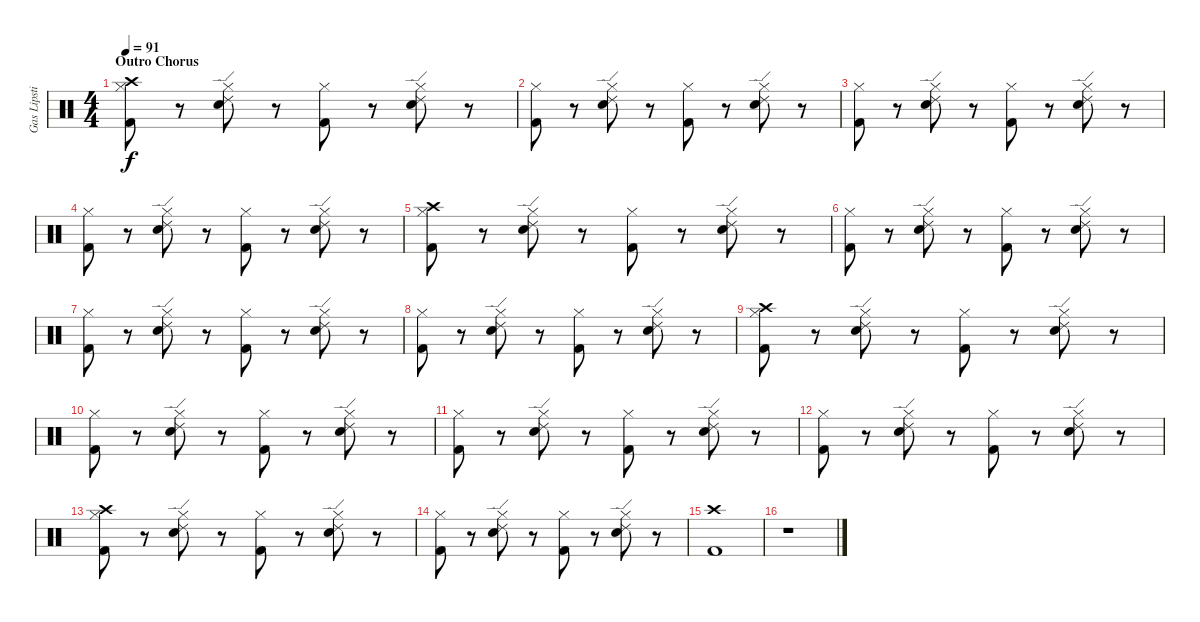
\track ("Gas Lipstick (Drums)" "Gas Lipsti") {instrument percussion}
\staff {score}
\articulation defaults
\ts (4 4)
\section ("" "Outro Chorus")
\tempo 91
\clef neutral
\ks c
("Crash high (hit)" "Hi-Hat (closed)" "Kick (hit) 2").8{dy f} r.8 ("Ride (edge) 2" "Hi-Hat (closed)" "Snare (hit) 2").8 r.8 ("Hi-Hat (closed)" "Kick (hit) 2").8 r.8 ("Ride (edge) 2" "Hi-Hat (closed)" "Snare (hit) 2").8 r.8 |
("Hi-Hat (closed)" "Kick (hit) 2").8 r.8 ("Ride (edge) 2" "Hi-Hat (closed)" "Snare (hit) 2").8 r.8 ("Hi-Hat (closed)" "Kick (hit) 2").8 r.8 ("Ride (edge) 2" "Hi-Hat (closed)" "Snare (hit) 2").8 r.8 |
("Hi-Hat (closed)" "Kick (hit) 2").8 r.8 ("Ride (edge) 2" "Hi-Hat (closed)" "Snare (hit) 2").8 r.8 ("Hi-Hat (closed)" "Kick (hit) 2").8 r.8 ("Ride (edge) 2" "Hi-Hat (closed)" "Snare (hit) 2").8 r.8 |
("Hi-Hat (closed)" "Kick (hit) 2").8 r.8 ("Ride (edge) 2" "Hi-Hat (closed)" "Snare (hit) 2").8 r.8 ("Hi-Hat (closed)" "Kick (hit) 2").8 r.8 ("Ride (edge) 2" "Hi-Hat (closed)" "Snare (hit) 2").8 r.8 |
("Crash high (hit)" "Hi-Hat (closed)" "Kick (hit) 2").8 r.8 ("Ride (edge) 2" "Hi-Hat (closed)" "Snare (hit) 2").8 r.8 ("Hi-Hat (closed)" "Kick (hit) 2").8 r.8 ("Ride (edge) 2" "Hi-Hat (closed)" "Snare (hit) 2").8 r.8 |
("Hi-Hat (closed)" "Kick (hit) 2").8 r.8 ("Ride (edge) 2" "Hi-Hat (closed)" "Snare (hit) 2").8 r.8 ("Hi-Hat (closed)" "Kick (hit) 2").8 r.8 ("Ride (edge) 2" "Hi-Hat (closed)" "Snare (hit) 2").8 r.8 |
("Hi-Hat (closed)" "Kick (hit) 2").8 r.8 ("Ride (edge) 2" "Hi-Hat (closed)" "Snare (hit) 2").8 r.8 ("Hi-Hat (closed)" "Kick (hit) 2").8 r.8 ("Ride (edge) 2" "Hi-Hat (closed)" "Snare (hit) 2").8 r.8 |
("Hi-Hat (closed)" "Kick (hit) 2").8 r.8 ("Ride (edge) 2" "Hi-Hat (closed)" "Snare (hit) 2").8 r.8 ("Hi-Hat (closed)" "Kick (hit) 2").8 r.8 ("Ride (edge) 2" "Hi-Hat (closed)" "Snare (hit) 2").8 r.8 |
("Crash high (hit)" "Hi-Hat (closed)" "Kick (hit) 2").8 r.8 ("Ride (edge) 2" "Hi-Hat (closed)" "Snare (hit) 2").8 r.8 ("Hi-Hat (closed)" "Kick (hit) 2").8 r.8 ("Ride (edge) 2" "Hi-Hat (closed)" "Snare (hit) 2").8 r.8 |
("Hi-Hat (closed)" "Kick (hit) 2").8 r.8 ("Ride (edge) 2" "Hi-Hat (closed)" "Snare (hit) 2").8 r.8 ("Hi-Hat (closed)" "Kick (hit) 2").8 r.8 ("Ride (edge) 2" "Hi-Hat (closed)" "Snare (hit) 2").8 r.8 |
("Hi-Hat (closed)" "Kick (hit) 2").8 r.8 ("Ride (edge) 2" "Hi-Hat (closed)" "Snare (hit) 2").8 r.8 ("Hi-Hat (closed)" "Kick (hit) 2").8 r.8 ("Ride (edge) 2" "Hi-Hat (closed)" "Snare (hit) 2").8 r.8 |
("Hi-Hat (closed)" "Kick (hit) 2").8 r.8 ("Ride (edge) 2" "Hi-Hat (closed)" "Snare (hit) 2").8 r.8 ("Hi-Hat (closed)" "Kick (hit) 2").8 r.8 ("Ride (edge) 2" "Hi-Hat (closed)" "Snare (hit) 2").8 r.8 |
("Crash high (hit)" "Hi-Hat (closed)" "Kick (hit) 2").8 r.8 ("Ride (edge) 2" "Hi-Hat (closed)" "Snare (hit) 2").8 r.8 ("Hi-Hat (closed)" "Kick (hit) 2").8 r.8 ("Ride (edge) 2" "Hi-Hat (closed)" "Snare (hit) 2").8 r.8 |
("Hi-Hat (closed)" "Kick (hit) 2").8 r.8 ("Ride (edge) 2" "Hi-Hat (closed)" "Snare (hit) 2").8 r.8 ("Hi-Hat (closed)" "Kick (hit) 2").8 r.8 ("Ride (edge) 2" "Hi-Hat (closed)" "Snare (hit) 2").8 r.8 |
("Crash high (hit)" "Kick (hit) 2").1 |
r.1
